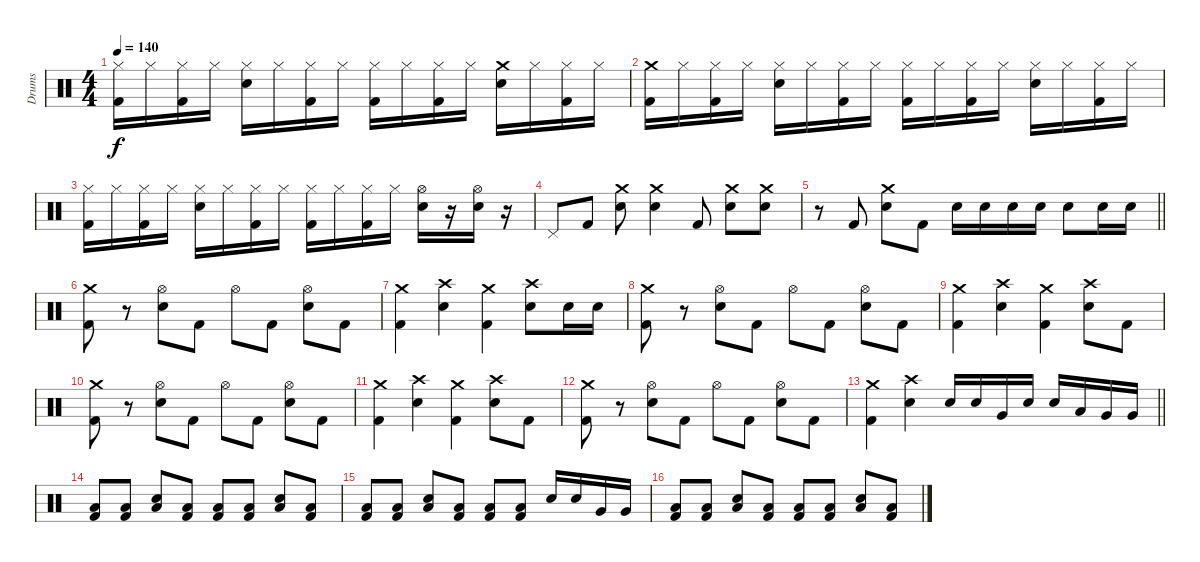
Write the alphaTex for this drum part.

\track ("Drums" "Drums") {instrument percussion}
\staff {score}
\articulation defaults
\ts (4 4)
\tempo 140
\clef neutral
\ks c
("Hi-Hat (closed)" "Kick (hit) 2").16{dy f} "Hi-Hat (closed)".16 ("Hi-Hat (closed)" "Kick (hit) 2").16 "Hi-Hat (closed)".16 ("Hi-Hat (closed)" "Electric Snare (hit)").16 "Hi-Hat (closed)".16 ("Hi-Hat (closed)" "Kick (hit) 2").16 "Hi-Hat (closed)".16 ("Hi-Hat (closed)" "Kick (hit) 2").16 "Hi-Hat (closed)".16 ("Hi-Hat (closed)" "Kick (hit) 2").16 "Hi-Hat (closed)".16 ("Crash medium (hit)" "Electric Snare (hit)").16 "Hi-Hat (closed)".16 ("Hi-Hat (closed)" "Kick (hit) 2").16 "Hi-Hat (closed)".16 |
("Crash medium (hit)" "Kick (hit) 2").16 "Hi-Hat (closed)".16 ("Hi-Hat (closed)" "Kick (hit) 2").16 "Hi-Hat (closed)".16 ("Hi-Hat (closed)" "Electric Snare (hit)").16 "Hi-Hat (closed)".16 ("Hi-Hat (closed)" "Kick (hit) 2").16 "Hi-Hat (closed)".16 ("Hi-Hat (closed)" "Kick (hit) 2").16 "Hi-Hat (closed)".16 ("Hi-Hat (closed)" "Kick (hit) 2").16 "Hi-Hat (closed)".16 ("Hi-Hat (closed)" "Electric Snare (hit)").16 "Hi-Hat (closed)".16 ("Hi-Hat (closed)" "Kick (hit) 2").16 "Hi-Hat (closed)".16 |
("Hi-Hat (closed)" "Kick (hit) 2").16 "Hi-Hat (closed)".16 ("Hi-Hat (closed)" "Kick (hit) 2").16 "Hi-Hat (closed)".16 ("Hi-Hat (closed)" "Electric Snare (hit)").16 "Hi-Hat (closed)".16 ("Hi-Hat (closed)" "Kick (hit) 2").16 "Hi-Hat (closed)".16 ("Hi-Hat (closed)" "Kick (hit) 2").16 "Hi-Hat (closed)".16 ("Hi-Hat (closed)" "Kick (hit) 2").16 "Hi-Hat (closed)".16 ("Hi-Hat (open)" "Electric Snare (hit)").16 r.16 ("Hi-Hat (open)" "Electric Snare (hit)").16 r.16 |
"Pedal Hi-Hat (hit)".8 "Kick (hit) 2".8 ("Crash medium (hit)" "Electric Snare (hit)").8 ("Crash medium (hit)" "Electric Snare (hit)").4 "Kick (hit) 2".8 ("Crash medium (hit)" "Electric Snare (hit)").8 ("Crash medium (hit)" "Electric Snare (hit)").8 |
\barLineRight lightlight
r.8 "Kick (hit) 2".8 ("Crash medium (hit)" "Electric Snare (hit)").8 "Kick (hit) 2".8 "Electric Snare (hit)".16 "Electric Snare (hit)".16 "Electric Snare (hit)".16 "Electric Snare (hit)".16 "Electric Snare (hit)".8 "Electric Snare (hit)".16 "Electric Snare (hit)".16 |
("Crash medium (hit)" "Kick (hit) 2").8 r.8 ("Hi-Hat (open)" "Electric Snare (hit)").8 "Kick (hit) 2".8 "Hi-Hat (open)".8 "Kick (hit) 2".8 ("Hi-Hat (open)" "Electric Snare (hit)").8 "Kick (hit) 2".8 |
("Crash medium (hit)" "Kick (hit) 2").4 ("Crash high (hit)" "Electric Snare (hit)").4 ("Crash medium (hit)" "Kick (hit) 2").4 ("Crash high (hit)" "Electric Snare (hit)").8 "Electric Snare (hit)".16 "Electric Snare (hit)".16 |
("Crash medium (hit)" "Kick (hit) 2").8 r.8 ("Hi-Hat (open)" "Electric Snare (hit)").8 "Kick (hit) 2".8 "Hi-Hat (open)".8 "Kick (hit) 2".8 ("Hi-Hat (open)" "Electric Snare (hit)").8 "Kick (hit) 2".8 |
("Crash medium (hit)" "Kick (hit) 2").4 ("Crash high (hit)" "Electric Snare (hit)").4 ("Crash medium (hit)" "Kick (hit) 2").4 ("Crash high (hit)" "Electric Snare (hit)").8 "Kick (hit) 2".8 |
("Crash medium (hit)" "Kick (hit) 2").8 r.8 ("Hi-Hat (open)" "Electric Snare (hit)").8 "Kick (hit) 2".8 "Hi-Hat (open)".8 "Kick (hit) 2".8 ("Hi-Hat (open)" "Electric Snare (hit)").8 "Kick (hit) 2".8 |
("Crash medium (hit)" "Kick (hit) 2").4 ("Crash high (hit)" "Electric Snare (hit)").4 ("Crash medium (hit)" "Kick (hit) 2").4 ("Crash high (hit)" "Electric Snare (hit)").8 "Kick (hit) 2".8 |
("Crash medium (hit)" "Kick (hit) 2").8 r.8 ("Hi-Hat (open)" "Electric Snare (hit)").8 "Kick (hit) 2".8 "Hi-Hat (open)".8 "Kick (hit) 2".8 ("Hi-Hat (open)" "Electric Snare (hit)").8 "Kick (hit) 2".8 |
\barLineRight lightlight
("Crash medium (hit)" "Kick (hit) 2").4 ("Crash high (hit)" "Electric Snare (hit)").4 "Electric Snare (hit)".16 "Electric Snare (hit)".16 "Very Low Tom (hit)".16 "Electric Snare (hit)".16 "Electric Snare (hit)".16 "Low Tom (hit)".16 "Very Low Tom (hit)".16 "Very Low Tom (hit)".16 |
("Low Floor Tom (hit)" "Kick (hit) 2").8 ("Low Floor Tom (hit)" "Kick (hit) 2").8 ("Electric Snare (hit)" "Low Floor Tom (hit)").8 ("Low Floor Tom (hit)" "Kick (hit) 2").8 ("Low Floor Tom (hit)" "Kick (hit) 2").8 ("Low Floor Tom (hit)" "Kick (hit) 2").8 ("Electric Snare (hit)" "Low Floor Tom (hit)").8 ("Low Floor Tom (hit)" "Kick (hit) 2").8 |
("Low Floor Tom (hit)" "Kick (hit) 2").8 ("Low Floor Tom (hit)" "Kick (hit) 2").8 ("Electric Snare (hit)" "Low Floor Tom (hit)").8 ("Low Floor Tom (hit)" "Kick (hit) 2").8 ("Low Floor Tom (hit)" "Kick (hit) 2").8 ("Low Floor Tom (hit)" "Kick (hit) 2").8 "Electric Snare (hit)".16 "Electric Snare (hit)".16 "Very Low Tom (hit)".16 "Very Low Tom (hit)".16 |
("Low Floor Tom (hit)" "Kick (hit) 2").8 ("Low Floor Tom (hit)" "Kick (hit) 2").8 ("Electric Snare (hit)" "Low Floor Tom (hit)").8 ("Low Floor Tom (hit)" "Kick (hit) 2").8 ("Low Floor Tom (hit)" "Kick (hit) 2").8 ("Low Floor Tom (hit)" "Kick (hit) 2").8 ("Electric Snare (hit)" "Low Floor Tom (hit)").8 ("Low Floor Tom (hit)" "Kick (hit) 2").8
